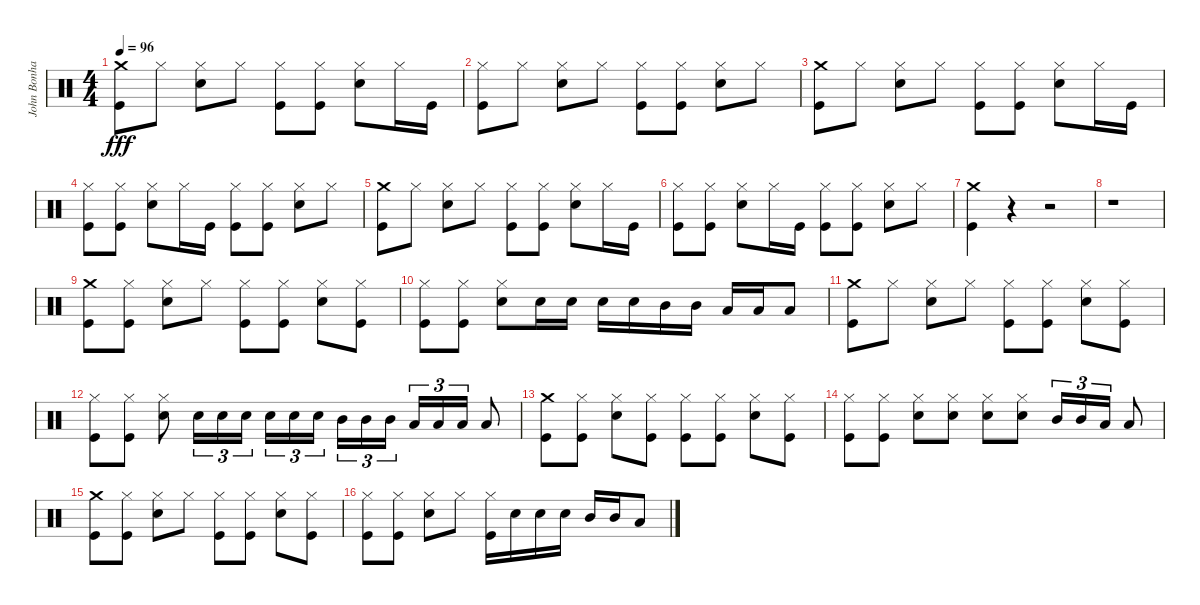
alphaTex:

\track ("John Bonham - Drums" "John Bonha") {instrument percussion}
\staff {score}
\articulation defaults
\ts (4 4)
\tempo 96
\clef neutral
\ks c
("Crash medium (hit)" "Kick (hit)").8{dy fff} "Hi-Hat (closed)".8 ("Hi-Hat (closed)" "Snare (hit) 2").8 "Hi-Hat (closed)".8 ("Hi-Hat (closed)" "Kick (hit)").8 ("Hi-Hat (closed)" "Kick (hit)").8 ("Hi-Hat (closed)" "Snare (hit) 2").8 "Hi-Hat (closed)".16 "Kick (hit)".16 |
("Hi-Hat (closed)" "Kick (hit)").8 "Hi-Hat (closed)".8 ("Hi-Hat (closed)" "Snare (hit) 2").8 "Hi-Hat (closed)".8 ("Hi-Hat (closed)" "Kick (hit)").8 ("Hi-Hat (closed)" "Kick (hit)").8 ("Hi-Hat (closed)" "Snare (hit) 2").8 "Hi-Hat (closed)".8 |
("Crash medium (hit)" "Kick (hit)").8 "Hi-Hat (closed)".8 ("Hi-Hat (closed)" "Snare (hit) 2").8 "Hi-Hat (closed)".8 ("Hi-Hat (closed)" "Kick (hit)").8 ("Hi-Hat (closed)" "Kick (hit)").8 ("Hi-Hat (closed)" "Snare (hit) 2").8 "Hi-Hat (closed)".16 "Kick (hit)".16 |
("Hi-Hat (closed)" "Kick (hit)").8 ("Hi-Hat (closed)" "Kick (hit)").8 ("Hi-Hat (closed)" "Snare (hit) 2").8 "Hi-Hat (closed)".16 "Kick (hit)".16 ("Hi-Hat (closed)" "Kick (hit)").8 ("Hi-Hat (closed)" "Kick (hit)").8 ("Hi-Hat (closed)" "Snare (hit) 2").8 "Hi-Hat (closed)".8 |
("Crash medium (hit)" "Kick (hit)").8 "Hi-Hat (closed)".8 ("Hi-Hat (closed)" "Snare (hit) 2").8 "Hi-Hat (closed)".8 ("Hi-Hat (closed)" "Kick (hit)").8 ("Hi-Hat (closed)" "Kick (hit)").8 ("Hi-Hat (closed)" "Snare (hit) 2").8 "Hi-Hat (closed)".16 "Kick (hit)".16 |
("Hi-Hat (closed)" "Kick (hit)").8 ("Hi-Hat (closed)" "Kick (hit)").8 ("Hi-Hat (closed)" "Snare (hit) 2").8 "Hi-Hat (closed)".16 "Kick (hit)".16 ("Hi-Hat (closed)" "Kick (hit)").8 ("Hi-Hat (closed)" "Kick (hit)").8 ("Hi-Hat (closed)" "Snare (hit) 2").8 "Hi-Hat (closed)".8 |
("Crash medium (hit)" "Kick (hit)").4 r.4 r.2 |
r.1 |
("Crash medium (hit)" "Kick (hit)").8 ("Hi-Hat (closed)" "Kick (hit)").8 ("Hi-Hat (closed)" "Snare (hit) 2").8 "Hi-Hat (closed)".8 ("Hi-Hat (closed)" "Kick (hit)").8 ("Hi-Hat (closed)" "Kick (hit)").8 ("Hi-Hat (closed)" "Snare (hit) 2").8 ("Hi-Hat (closed)" "Kick (hit)").8 |
("Hi-Hat (closed)" "Kick (hit)").8 ("Hi-Hat (closed)" "Kick (hit)").8 ("Hi-Hat (closed)" "Snare (hit) 2").8 "Snare (hit) 2".16 "Snare (hit) 2".16 "Snare (hit) 2".16 "Snare (hit) 2".16 "Mid Tom (hit)".16 "Mid Tom (hit)".16 "Low Tom (hit)".16 "Low Tom (hit)".16 "Low Tom (hit)".8 |
("Crash medium (hit)" "Kick (hit)").8 "Hi-Hat (closed)".8 ("Hi-Hat (closed)" "Snare (hit) 2").8 "Hi-Hat (closed)".8 ("Hi-Hat (closed)" "Kick (hit)").8 ("Hi-Hat (closed)" "Kick (hit)").8 ("Hi-Hat (closed)" "Snare (hit) 2").8 ("Hi-Hat (closed)" "Kick (hit)").8 |
("Hi-Hat (closed)" "Kick (hit)").8 ("Hi-Hat (closed)" "Kick (hit)").8 ("Hi-Hat (closed)" "Snare (hit) 2").8 "Snare (hit) 2".16{tu (3 2)} "Snare (hit) 2".16{tu (3 2)} "Snare (hit) 2".16{tu (3 2)} "Snare (hit) 2".16{tu (3 2)} "Snare (hit) 2".16{tu (3 2)} "Snare (hit) 2".16{tu (3 2) beam splitsecondary} "Mid Tom (hit)".16{tu (3 2)} "Mid Tom (hit)".16{tu (3 2)} "Mid Tom (hit)".16{tu (3 2)} "Low Tom (hit)".16{tu (3 2)} "Low Tom (hit)".16{tu (3 2)} "Low Tom (hit)".16{tu (3 2)} "Low Tom (hit)".8 |
("Crash medium (hit)" "Kick (hit)").8 ("Hi-Hat (closed)" "Kick (hit)").8 ("Hi-Hat (closed)" "Snare (hit) 2").8 ("Hi-Hat (closed)" "Kick (hit)").8 ("Hi-Hat (closed)" "Kick (hit)").8 ("Hi-Hat (closed)" "Kick (hit)").8 ("Hi-Hat (closed)" "Snare (hit) 2").8 ("Hi-Hat (closed)" "Kick (hit)").8 |
("Hi-Hat (closed)" "Kick (hit)").8 ("Hi-Hat (closed)" "Kick (hit)").8 ("Hi-Hat (closed)" "Snare (hit) 2").8 ("Hi-Hat (closed)" "Snare (hit) 2").8 ("Hi-Hat (closed)" "Snare (hit) 2").8 ("Hi-Hat (closed)" "Snare (hit) 2").8 "Mid Tom (hit)".16{tu (3 2)} "Mid Tom (hit)".16{tu (3 2)} "Low Tom (hit)".16{tu (3 2)} "Low Tom (hit)".8 |
("Crash medium (hit)" "Kick (hit)").8 ("Hi-Hat (closed)" "Kick (hit)").8 ("Hi-Hat (closed)" "Snare (hit) 2").8 "Hi-Hat (closed)".8 ("Hi-Hat (closed)" "Kick (hit)").8 ("Hi-Hat (closed)" "Kick (hit)").8 ("Hi-Hat (closed)" "Snare (hit) 2").8 ("Hi-Hat (closed)" "Kick (hit)").8 |
("Hi-Hat (closed)" "Kick (hit)").8 ("Hi-Hat (closed)" "Kick (hit)").8 ("Hi-Hat (closed)" "Snare (hit) 2").8 "Hi-Hat (closed)".8 ("Hi-Hat (closed)" "Kick (hit)").16 "Snare (hit) 2".16 "Snare (hit) 2".16 "Snare (hit) 2".16 "Mid Tom (hit)".16 "Mid Tom (hit)".16 "Low Tom (hit)".8
